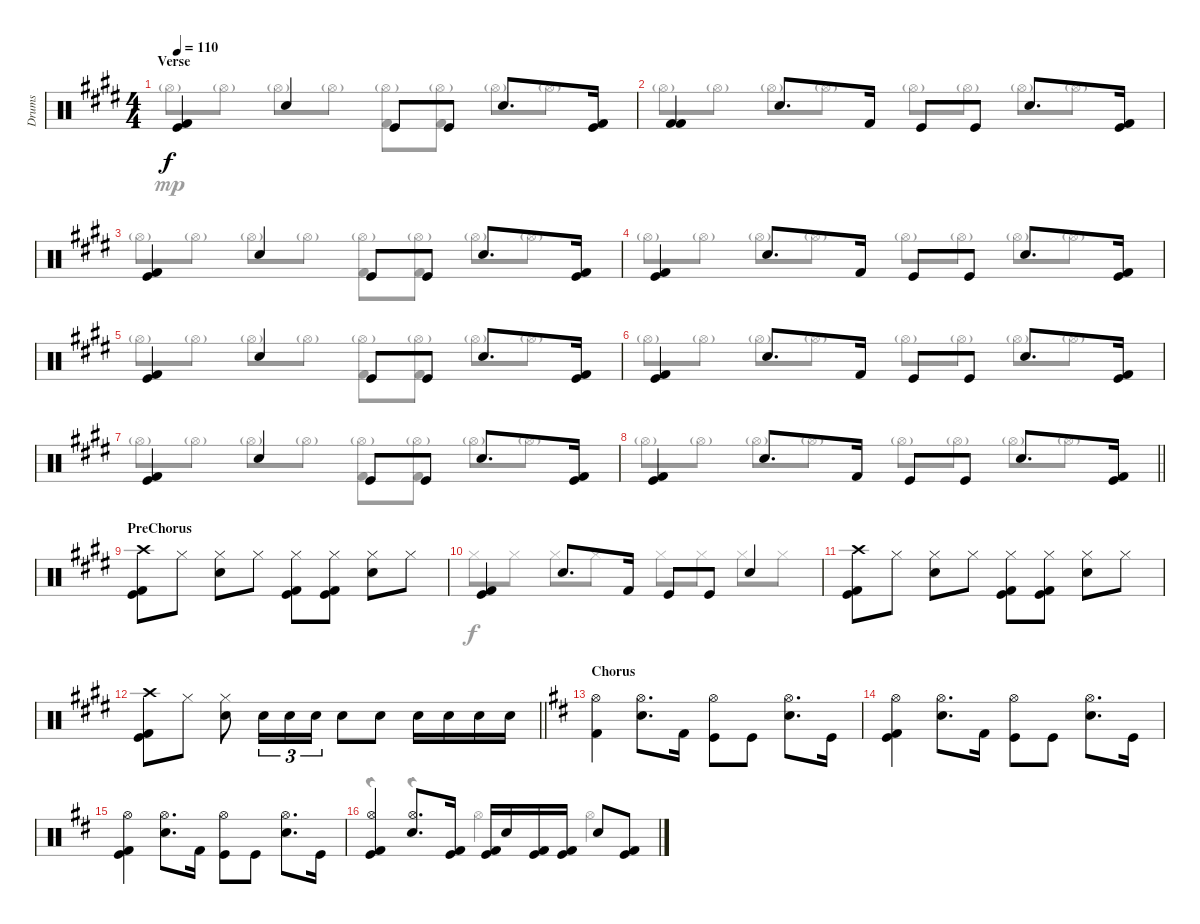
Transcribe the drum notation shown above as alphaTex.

\track ("Drums" "Drums") {instrument percussion}
\staff {score}
\articulation defaults
\voice
\ts (4 4)
\section ("" "Verse")
\tempo 110
\clef neutral
\ks e
("Kick (hit) 2" "Kick (hit)").4{dy f} "Snare (hit) 2".4 "Kick (hit)".8 "Kick (hit)".8 "Snare (hit) 2".8{d} ("Kick (hit)" "Kick (hit) 2").16 |
("Kick (hit) 2" "Kick (hit) 2").4 "Snare (hit) 2".8{d} "Kick (hit) 2".16 "Kick (hit)".8 "Kick (hit)".8 "Snare (hit) 2".8{d} ("Kick (hit)" "Kick (hit) 2").16 |
("Kick (hit) 2" "Kick (hit)").4 "Snare (hit) 2".4 "Kick (hit)".8 "Kick (hit)".8 "Snare (hit) 2".8{d} ("Kick (hit)" "Kick (hit) 2").16 |
("Kick (hit) 2" "Kick (hit)").4 "Snare (hit) 2".8{d} "Kick (hit) 2".16 "Kick (hit)".8 "Kick (hit)".8 "Snare (hit) 2".8{d} ("Kick (hit)" "Kick (hit) 2").16 |
("Kick (hit) 2" "Kick (hit)").4 "Snare (hit) 2".4 "Kick (hit)".8 "Kick (hit)".8 "Snare (hit) 2".8{d} ("Kick (hit)" "Kick (hit) 2").16 |
("Kick (hit) 2" "Kick (hit)").4 "Snare (hit) 2".8{d} "Kick (hit) 2".16 "Kick (hit)".8 "Kick (hit)".8 "Snare (hit) 2".8{d} ("Kick (hit)" "Kick (hit) 2").16 |
("Kick (hit) 2" "Kick (hit)").4 "Snare (hit) 2".4 "Kick (hit)".8 "Kick (hit)".8 "Snare (hit) 2".8{d} ("Kick (hit)" "Kick (hit) 2").16 |
\barLineRight lightlight
("Kick (hit) 2" "Kick (hit)").4 "Snare (hit) 2".8{d} "Kick (hit) 2".16 "Kick (hit)".8 "Kick (hit)".8 "Snare (hit) 2".8{d} ("Kick (hit)" "Kick (hit) 2").16 |
\section ("" "PreChorus")
("Crash high (hit)" "Kick (hit)" "Kick (hit) 2").8 "Hi-Hat (closed)".8 ("Hi-Hat (closed)" "Electric Snare (hit)").8 "Hi-Hat (closed)".8 ("Hi-Hat (closed)" "Kick (hit)" "Kick (hit) 2").8 ("Hi-Hat (closed)" "Kick (hit)" "Kick (hit) 2").8 ("Hi-Hat (closed)" "Electric Snare (hit)").8 "Hi-Hat (closed)".8 |
("Kick (hit) 2" "Kick (hit)").4 "Electric Snare (hit)".8{d} "Kick (hit) 2".16 "Kick (hit)".8 "Kick (hit)".8 "Electric Snare (hit)".4 |
("Crash high (hit)" "Kick (hit)" "Kick (hit) 2").8 "Hi-Hat (closed)".8 ("Hi-Hat (closed)" "Electric Snare (hit)").8 "Hi-Hat (closed)".8 ("Hi-Hat (closed)" "Kick (hit)" "Kick (hit) 2").8 ("Hi-Hat (closed)" "Kick (hit)" "Kick (hit) 2").8 ("Hi-Hat (closed)" "Electric Snare (hit)").8 "Hi-Hat (closed)".8 |
\barLineRight lightlight
("Crash high (hit)" "Kick (hit)" "Kick (hit) 2").8 "Hi-Hat (closed)".8 ("Hi-Hat (closed)" "Electric Snare (hit)").8 "Electric Snare (hit)".16{tu (3 2)} "Electric Snare (hit)".16{tu (3 2)} "Electric Snare (hit)".16{tu (3 2)} "Electric Snare (hit)".8 "Electric Snare (hit)".8 "Electric Snare (hit)".16 "Electric Snare (hit)".16 "Electric Snare (hit)".16 "Electric Snare (hit)".16 |
\section ("" "Chorus")
\ks d
("Kick (hit) 2" "Hi-Hat (open)").4 ("Snare (hit) 2" "Hi-Hat (open)").8{d} "Kick (hit) 2".16 ("Kick (hit)" "Hi-Hat (open)").8 "Kick (hit)".8 ("Snare (hit) 2" "Hi-Hat (open)").8{d} "Kick (hit)".16 |
("Kick (hit) 2" "Kick (hit)" "Hi-Hat (open)").4 ("Snare (hit) 2" "Hi-Hat (open)").8{d} "Kick (hit) 2".16 ("Kick (hit)" "Hi-Hat (open)").8 "Kick (hit)".8 ("Snare (hit) 2" "Hi-Hat (open)").8{d} "Kick (hit)".16 |
("Kick (hit) 2" "Kick (hit)" "Hi-Hat (open)").4 ("Snare (hit) 2" "Hi-Hat (open)").8{d} "Kick (hit) 2".16 ("Kick (hit)" "Hi-Hat (open)").8 "Kick (hit)".8 ("Snare (hit) 2" "Hi-Hat (open)").8{d} "Kick (hit)".16 |
("Kick (hit) 2" "Kick (hit)" "Hi-Hat (open)").4 ("Snare (hit) 2" "Hi-Hat (open)").8{d} ("Kick (hit) 2" "Kick (hit)").16 ("Kick (hit) 2" "Kick (hit)").16 "Electric Snare (hit)".16 ("Kick (hit)" "Kick (hit) 2").16 ("Kick (hit)" "Kick (hit) 2").16 "Electric Snare (hit)".8 ("Kick (hit)" "Kick (hit) 2").8
\voice
\clef neutral
\ottava regular
\simile none
\ks e "Hi-Hat (open)"{g}.8{dy mp} "Hi-Hat (open)"{g}.8 "Hi-Hat (open)"{g}.8 "Hi-Hat (open)"{g}.8
("Kick (hit) 2" "Hi-Hat (open)"{g}).8 ("Kick (hit) 2" "Hi-Hat (open)"{g}).8 "Hi-Hat (open)"{g}.8 "Hi-Hat (open)"{g}.8 |
"Hi-Hat (open)"{g}.8 "Hi-Hat (open)"{g}.8 "Hi-Hat (open)"{g}.8 "Hi-Hat (open)"{g}.8 "Hi-Hat (open)"{g}.8 "Hi-Hat (open)"{g}.8 "Hi-Hat (open)"{g}.8 "Hi-Hat (open)"{g}.8 |
"Hi-Hat (open)"{g}.8 "Hi-Hat (open)"{g}.8 "Hi-Hat (open)"{g}.8 "Hi-Hat (open)"{g}.8 ("Kick (hit) 2" "Hi-Hat (open)"{g}).8 ("Kick (hit) 2" "Hi-Hat (open)"{g}).8 "Hi-Hat (open)"{g}.8 "Hi-Hat (open)"{g}.8 |
"Hi-Hat (open)"{g}.8 "Hi-Hat (open)"{g}.8 "Hi-Hat (open)"{g}.8 "Hi-Hat (open)"{g}.8 "Hi-Hat (open)"{g}.8 "Hi-Hat (open)"{g}.8 "Hi-Hat (open)"{g}.8 "Hi-Hat (open)"{g}.8 |
"Hi-Hat (open)"{g}.8 "Hi-Hat (open)"{g}.8 "Hi-Hat (open)"{g}.8 "Hi-Hat (open)"{g}.8 ("Kick (hit) 2" "Hi-Hat (open)"{g}).8 ("Kick (hit) 2" "Hi-Hat (open)"{g}).8 "Hi-Hat (open)"{g}.8 "Hi-Hat (open)"{g}.8 |
"Hi-Hat (open)"{g}.8 "Hi-Hat (open)"{g}.8 "Hi-Hat (open)"{g}.8 "Hi-Hat (open)"{g}.8 "Hi-Hat (open)"{g}.8 "Hi-Hat (open)"{g}.8 "Hi-Hat (open)"{g}.8 "Hi-Hat (open)"{g}.8 |
"Hi-Hat (open)"{g}.8 "Hi-Hat (open)"{g}.8 "Hi-Hat (open)"{g}.8 "Hi-Hat (open)"{g}.8 ("Kick (hit) 2" "Hi-Hat (open)"{g}).8 ("Kick (hit) 2" "Hi-Hat (open)"{g}).8 "Hi-Hat (open)"{g}.8 "Hi-Hat (open)"{g}.8 |
\barLineRight lightlight "Hi-Hat (open)"{g}.8 "Hi-Hat (open)"{g}.8 "Hi-Hat (open)"{g}.8 "Hi-Hat (open)"{g}.8 "Hi-Hat (open)"{g}.8 "Hi-Hat (open)"{g}.8 "Hi-Hat (open)"{g}.8 "Hi-Hat (open)"{g}.8
|
|
"Hi-Hat (closed)".8{dy f} "Hi-Hat (closed)".8 "Hi-Hat (closed)".8 "Hi-Hat (closed)".8 "Hi-Hat (closed)".8 "Hi-Hat (closed)".8 "Hi-Hat (closed)".8 "Hi-Hat (closed)".8 |
|
\barLineRight lightlight
|
\ks d
|
|
|
r.4 r.4 "Hi-Hat (open)".4 "Hi-Hat (open)".4
